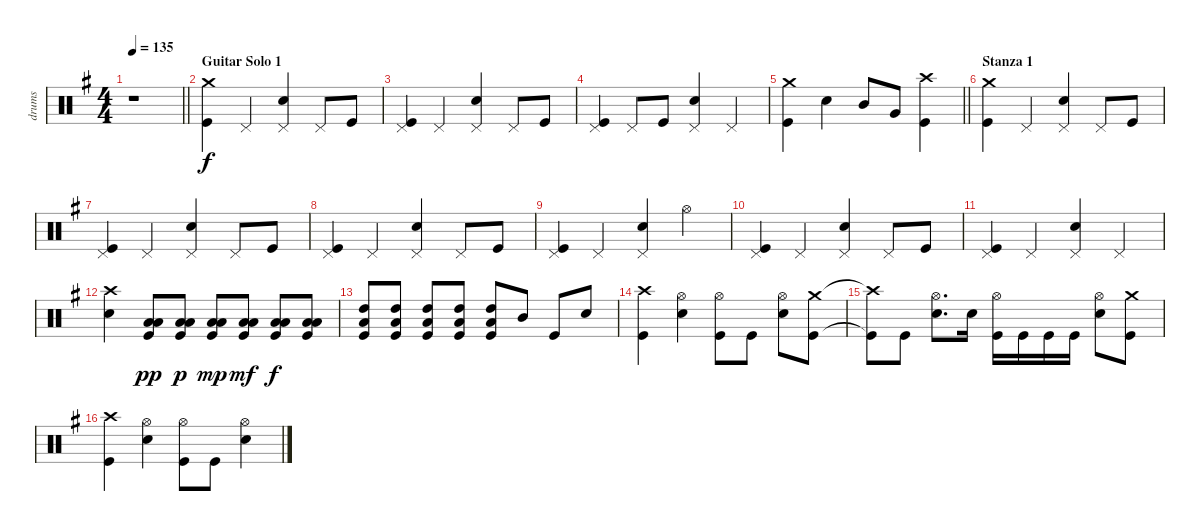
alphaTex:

\track ("drums" "drums") {instrument percussion}
\staff {score}
\articulation defaults
\ts (4 4)
\tempo 135
\clef neutral
\barLineRight lightlight
\ks eminor
r.1{dy mp} |
\section ("" "Guitar Solo 1")
("Crash medium (hit)" "Kick (hit)").4{dy f} "Pedal Hi-Hat (hit)".4 ("Pedal Hi-Hat (hit)" "Snare (hit) 2").4 "Pedal Hi-Hat (hit)".8 "Kick (hit)".8 |
("Pedal Hi-Hat (hit)" "Kick (hit)").4 "Pedal Hi-Hat (hit)".4 ("Pedal Hi-Hat (hit)" "Snare (hit) 2").4 "Pedal Hi-Hat (hit)".8 "Kick (hit)".8 |
("Pedal Hi-Hat (hit)" "Kick (hit)").4 "Pedal Hi-Hat (hit)".8 "Kick (hit)".8 ("Pedal Hi-Hat (hit)" "Snare (hit) 2").4 "Pedal Hi-Hat (hit)".4 |
\barLineRight lightlight
("Crash medium (hit)" "Kick (hit)").4 "Snare (hit) 2".4 "Mid Tom (hit)".8 "Very Low Tom (hit)".8 ("Crash high (hit)" "Kick (hit)").4 |
\section ("" "Stanza 1")
("Crash medium (hit)" "Kick (hit)").4 "Pedal Hi-Hat (hit)".4 ("Pedal Hi-Hat (hit)" "Snare (hit) 2").4 "Pedal Hi-Hat (hit)".8 "Kick (hit)".8 |
("Pedal Hi-Hat (hit)" "Kick (hit)").4 "Pedal Hi-Hat (hit)".4 ("Pedal Hi-Hat (hit)" "Snare (hit) 2").4 "Pedal Hi-Hat (hit)".8 "Kick (hit)".8 |
("Pedal Hi-Hat (hit)" "Kick (hit)").4 "Pedal Hi-Hat (hit)".4 ("Pedal Hi-Hat (hit)" "Snare (hit) 2").4 "Pedal Hi-Hat (hit)".8 "Kick (hit)".8 |
("Pedal Hi-Hat (hit)" "Kick (hit)").4 "Pedal Hi-Hat (hit)".4 ("Pedal Hi-Hat (hit)" "Snare (hit) 2").4 "Hi-Hat (open)".4 |
("Pedal Hi-Hat (hit)" "Kick (hit)").4 "Pedal Hi-Hat (hit)".4 ("Pedal Hi-Hat (hit)" "Snare (hit) 2").4 "Pedal Hi-Hat (hit)".8 "Kick (hit)".8 |
("Pedal Hi-Hat (hit)" "Kick (hit)").4 "Pedal Hi-Hat (hit)".4 ("Pedal Hi-Hat (hit)" "Snare (hit) 2").4 "Pedal Hi-Hat (hit)".4 |
("Crash high (hit)" "Snare (hit) 2").4 ("Low Tom (hit)" "Low Floor Tom (hit)" "Kick (hit)").8{dy pp} ("Low Tom (hit)" "Low Floor Tom (hit)" "Kick (hit)").8{dy p} ("Low Tom (hit)" "Low Floor Tom (hit)" "Kick (hit)").8{dy mp} ("Low Tom (hit)" "Low Floor Tom (hit)" "Kick (hit)").8{dy mf} ("Low Tom (hit)" "Low Floor Tom (hit)" "Kick (hit)").8{dy f} ("Low Tom (hit)" "Low Floor Tom (hit)" "Kick (hit)").8 |
("High Tom (hit)" "Low Floor Tom (hit)" "Kick (hit)").8 ("High Tom (hit)" "Low Floor Tom (hit)" "Kick (hit)").8 ("High Tom (hit)" "Low Floor Tom (hit)" "Kick (hit)").8 ("High Tom (hit)" "Low Floor Tom (hit)" "Kick (hit)").8 ("High Tom (hit)" "Low Floor Tom (hit)" "Kick (hit)").8 "Mid Tom (hit)".8 "Kick (hit)".8 "Snare (hit) 2".8 |
("Crash high (hit)" "Kick (hit)").4 ("Hi-Hat (open)" "Snare (hit) 2").4 ("Hi-Hat (open)" "Kick (hit)").8 "Kick (hit)".8 ("Hi-Hat (open)" "Snare (hit) 2").8 ("Crash medium (hit)" "Kick (hit)").8 |
("Crash high (hit)"{t} "Kick (hit)"{t}).8 "Kick (hit)".8 ("Hi-Hat (open)" "Snare (hit) 2").8{d} "Snare (hit) 2".16 ("Hi-Hat (open)" "Kick (hit)").16 "Kick (hit)".16 "Kick (hit)".16 "Kick (hit)".16 ("Hi-Hat (open)" "Snare (hit) 2").8 ("Crash medium (hit)" "Kick (hit)").8 |
("Crash high (hit)" "Kick (hit)").4 ("Hi-Hat (open)" "Snare (hit) 2").4 ("Hi-Hat (open)" "Kick (hit)").8 "Kick (hit)".8 ("Hi-Hat (open)" "Snare (hit) 2").4
